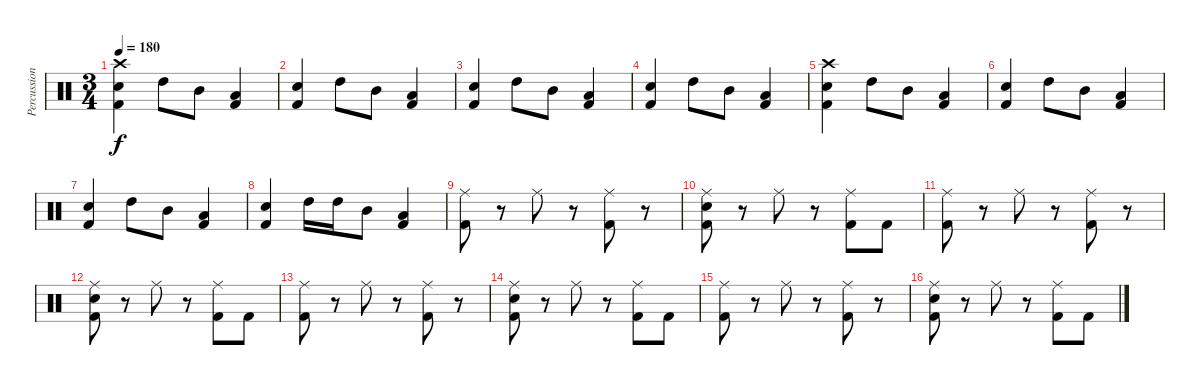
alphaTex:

\track ("Percussion" "Percussion") {instrument percussion}
\staff {score}
\articulation defaults
\ts (3 4)
\tempo 180
\clef neutral
\ks c
("Crash high (hit)" "Snare (hit) 2" "Kick (hit) 2").4{dy f} "High Tom (hit)".8 "Mid Tom (hit)".8 ("Low Tom (hit)" "Kick (hit) 2").4 |
("Snare (hit) 2" "Kick (hit) 2").4 "High Tom (hit)".8 "Mid Tom (hit)".8 ("Low Tom (hit)" "Kick (hit) 2").4 |
("Snare (hit) 2" "Kick (hit) 2").4 "High Tom (hit)".8 "Mid Tom (hit)".8 ("Low Tom (hit)" "Kick (hit) 2").4 |
("Snare (hit) 2" "Kick (hit) 2").4 "High Tom (hit)".8 "Mid Tom (hit)".8 ("Low Tom (hit)" "Kick (hit) 2").4 |
("Crash high (hit)" "Snare (hit) 2" "Kick (hit) 2").4 "High Tom (hit)".8 "Mid Tom (hit)".8 ("Low Tom (hit)" "Kick (hit) 2").4 |
("Snare (hit) 2" "Kick (hit) 2").4 "High Tom (hit)".8 "Mid Tom (hit)".8 ("Low Tom (hit)" "Kick (hit) 2").4 |
("Snare (hit) 2" "Kick (hit) 2").4 "High Tom (hit)".8 "Mid Tom (hit)".8 ("Low Tom (hit)" "Kick (hit) 2").4 |
("Snare (hit) 2" "Kick (hit) 2").4 "High Tom (hit)".16 "High Tom (hit)".16 "Mid Tom (hit)".8 ("Low Tom (hit)" "Kick (hit) 2").4 |
("Ride (middle)" "Kick (hit) 2").8 r.8 "Ride (middle)".8 r.8 ("Ride (middle)" "Kick (hit) 2").8 r.8 |
("Ride (middle)" "Snare (hit) 2" "Kick (hit) 2").8 r.8 "Ride (middle)".8 r.8 ("Ride (middle)" "Kick (hit) 2").8 "Kick (hit) 2".8 |
("Ride (middle)" "Kick (hit) 2").8 r.8 "Ride (middle)".8 r.8 ("Ride (middle)" "Kick (hit) 2").8 r.8 |
("Ride (middle)" "Snare (hit) 2" "Kick (hit) 2").8 r.8 "Ride (middle)".8 r.8 ("Ride (middle)" "Kick (hit) 2").8 "Kick (hit) 2".8 |
("Ride (middle)" "Kick (hit) 2").8 r.8 "Ride (middle)".8 r.8 ("Ride (middle)" "Kick (hit) 2").8 r.8 |
("Ride (middle)" "Snare (hit) 2" "Kick (hit) 2").8 r.8 "Ride (middle)".8 r.8 ("Ride (middle)" "Kick (hit) 2").8 "Kick (hit) 2".8 |
("Ride (middle)" "Kick (hit) 2").8 r.8 "Ride (middle)".8 r.8 ("Ride (middle)" "Kick (hit) 2").8 r.8 |
("Ride (middle)" "Snare (hit) 2" "Kick (hit) 2").8 r.8 "Ride (middle)".8 r.8 ("Ride (middle)" "Kick (hit) 2").8 "Kick (hit) 2".8
